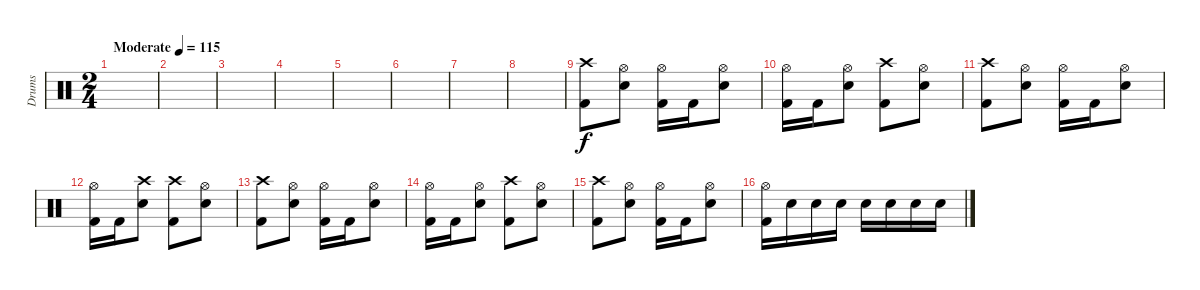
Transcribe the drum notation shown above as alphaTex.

\track ("Drums" "Drums") {instrument percussion}
\staff {score}
\articulation defaults
\ts (2 4)
\tempo (115 "Moderate")
\clef neutral
\ks c
|
|
|
|
|
|
|
|
("Crash high (hit)" "Kick (hit) 2").8 ("Hi-Hat (open)" "Electric Snare (hit)").8 ("Hi-Hat (open)" "Kick (hit) 2").16 "Kick (hit) 2".16 ("Hi-Hat (open)" "Electric Snare (hit)").8 |
("Hi-Hat (open)" "Kick (hit) 2").16 "Kick (hit) 2".16 ("Hi-Hat (open)" "Electric Snare (hit)").8 ("Crash high (hit)" "Kick (hit) 2").8 ("Hi-Hat (open)" "Electric Snare (hit)").8 |
("Crash high (hit)" "Kick (hit) 2").8 ("Hi-Hat (open)" "Electric Snare (hit)").8 ("Hi-Hat (open)" "Kick (hit) 2").16 "Kick (hit) 2".16 ("Hi-Hat (open)" "Electric Snare (hit)").8 |
("Hi-Hat (open)" "Kick (hit) 2").16 "Kick (hit) 2".16 ("Crash high (hit)" "Electric Snare (hit)").8 ("Crash high (hit)" "Kick (hit) 2").8 ("Hi-Hat (open)" "Electric Snare (hit)").8 |
("Crash high (hit)" "Kick (hit) 2").8 ("Hi-Hat (open)" "Electric Snare (hit)").8 ("Hi-Hat (open)" "Kick (hit) 2").16 "Kick (hit) 2".16 ("Hi-Hat (open)" "Electric Snare (hit)").8 |
("Hi-Hat (open)" "Kick (hit) 2").16 "Kick (hit) 2".16 ("Hi-Hat (open)" "Electric Snare (hit)").8 ("Crash high (hit)" "Kick (hit) 2").8 ("Hi-Hat (open)" "Electric Snare (hit)").8 |
("Crash high (hit)" "Kick (hit) 2").8 ("Hi-Hat (open)" "Electric Snare (hit)").8 ("Hi-Hat (open)" "Kick (hit) 2").16 "Kick (hit) 2".16 ("Hi-Hat (open)" "Electric Snare (hit)").8 |
("Hi-Hat (open)" "Kick (hit) 2").16 "Electric Snare (hit)".16 "Electric Snare (hit)".16 "Electric Snare (hit)".16 "Electric Snare (hit)".16 "Electric Snare (hit)".16 "Electric Snare (hit)".16 "Electric Snare (hit)".16
